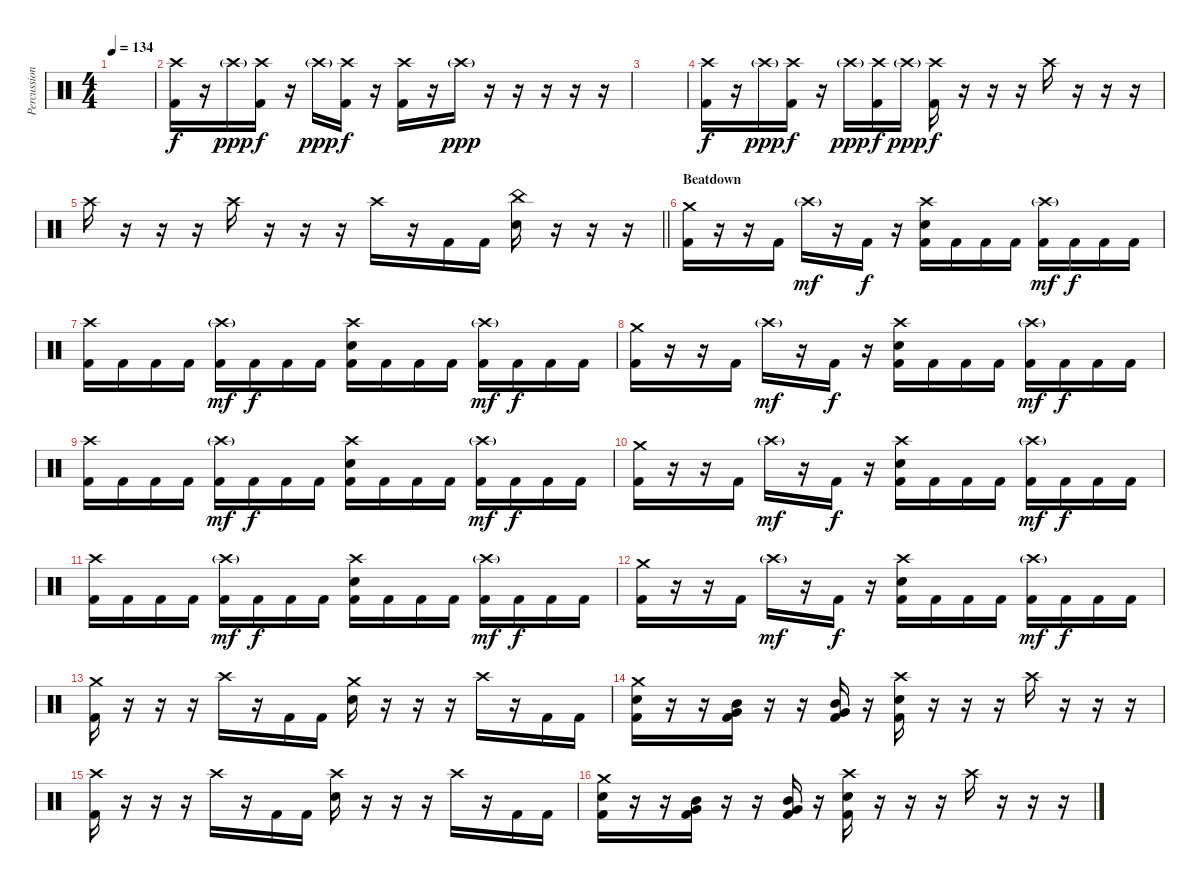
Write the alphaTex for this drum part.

\track ("Percussion" "Percussion") {instrument percussion}
\staff {score}
\articulation defaults
\ts (4 4)
\tempo 134
\clef neutral
\ks c
|
("Crash high (hit)" "Kick (hit) 2").16{dy f} r.16 "Crash high (hit)"{g}.16{dy ppp} ("Crash high (hit)" "Kick (hit) 2").16{dy f} r.16 "Crash high (hit)"{g}.16{dy ppp} ("Crash high (hit)" "Kick (hit) 2").16{dy f} r.16 ("Crash high (hit)" "Kick (hit) 2").16 r.16 "Crash high (hit)"{g}.16{dy ppp} r.16 r.16 r.16 r.16 r.16 |
|
("Crash high (hit)" "Kick (hit) 2").16{dy f} r.16 "Crash high (hit)"{g}.16{dy ppp} ("Crash high (hit)" "Kick (hit) 2").16{dy f} r.16 "Crash high (hit)"{g}.16{dy ppp} ("Crash high (hit)" "Kick (hit) 2").16{dy f} "Crash high (hit)"{g}.16{dy ppp} ("Crash high (hit)" "Kick (hit) 2").16{dy f} r.16 r.16 r.16 "Crash high (hit)".16 r.16 r.16 r.16 |
\barLineRight lightlight "Crash high (hit)".16
r.16 r.16 r.16 "Crash high (hit)".16 r.16 r.16 r.16 "Crash high (hit)".16 r.16 "Kick (hit) 2".16 "Kick (hit) 2".16 ("China (hit)" "Snare (hit) 2").16 r.16 r.16 r.16 |
\section ("" "Beatdown")
("Crash medium (hit)" "Kick (hit) 2").16 r.16 r.16 "Kick (hit) 2".16 "Crash high (hit)"{g}.16{dy mf} r.16 "Kick (hit) 2".16{dy f} r.16 ("Crash high (hit)" "Snare (hit) 2" "Kick (hit) 2").16 "Kick (hit) 2".16 "Kick (hit) 2".16 "Kick (hit) 2".16 ("Crash high (hit)"{g} "Kick (hit) 2").16{dy mf} "Kick (hit) 2".16{dy f} "Kick (hit) 2".16 "Kick (hit) 2".16 |
("Crash high (hit)" "Kick (hit) 2").16 "Kick (hit) 2".16 "Kick (hit) 2".16 "Kick (hit) 2".16 ("Crash high (hit)"{g} "Kick (hit) 2").16{dy mf} "Kick (hit) 2".16{dy f} "Kick (hit) 2".16 "Kick (hit) 2".16 ("Crash high (hit)" "Snare (hit) 2" "Kick (hit) 2").16 "Kick (hit) 2".16 "Kick (hit) 2".16 "Kick (hit) 2".16 ("Crash high (hit)"{g} "Kick (hit) 2").16{dy mf} "Kick (hit) 2".16{dy f} "Kick (hit) 2".16 "Kick (hit) 2".16 |
("Crash medium (hit)" "Kick (hit) 2").16 r.16 r.16 "Kick (hit) 2".16 "Crash high (hit)"{g}.16{dy mf} r.16 "Kick (hit) 2".16{dy f} r.16 ("Crash high (hit)" "Snare (hit) 2" "Kick (hit) 2").16 "Kick (hit) 2".16 "Kick (hit) 2".16 "Kick (hit) 2".16 ("Crash high (hit)"{g} "Kick (hit) 2").16{dy mf} "Kick (hit) 2".16{dy f} "Kick (hit) 2".16 "Kick (hit) 2".16 |
("Crash high (hit)" "Kick (hit) 2").16 "Kick (hit) 2".16 "Kick (hit) 2".16 "Kick (hit) 2".16 ("Crash high (hit)"{g} "Kick (hit) 2").16{dy mf} "Kick (hit) 2".16{dy f} "Kick (hit) 2".16 "Kick (hit) 2".16 ("Crash high (hit)" "Snare (hit) 2" "Kick (hit) 2").16 "Kick (hit) 2".16 "Kick (hit) 2".16 "Kick (hit) 2".16 ("Crash high (hit)"{g} "Kick (hit) 2").16{dy mf} "Kick (hit) 2".16{dy f} "Kick (hit) 2".16 "Kick (hit) 2".16 |
("Crash medium (hit)" "Kick (hit) 2").16 r.16 r.16 "Kick (hit) 2".16 "Crash high (hit)"{g}.16{dy mf} r.16 "Kick (hit) 2".16{dy f} r.16 ("Crash high (hit)" "Snare (hit) 2" "Kick (hit) 2").16 "Kick (hit) 2".16 "Kick (hit) 2".16 "Kick (hit) 2".16 ("Crash high (hit)"{g} "Kick (hit) 2").16{dy mf} "Kick (hit) 2".16{dy f} "Kick (hit) 2".16 "Kick (hit) 2".16 |
("Crash high (hit)" "Kick (hit) 2").16 "Kick (hit) 2".16 "Kick (hit) 2".16 "Kick (hit) 2".16 ("Crash high (hit)"{g} "Kick (hit) 2").16{dy mf} "Kick (hit) 2".16{dy f} "Kick (hit) 2".16 "Kick (hit) 2".16 ("Crash high (hit)" "Snare (hit) 2" "Kick (hit) 2").16 "Kick (hit) 2".16 "Kick (hit) 2".16 "Kick (hit) 2".16 ("Crash high (hit)"{g} "Kick (hit) 2").16{dy mf} "Kick (hit) 2".16{dy f} "Kick (hit) 2".16 "Kick (hit) 2".16 |
("Crash medium (hit)" "Kick (hit) 2").16 r.16 r.16 "Kick (hit) 2".16 "Crash high (hit)"{g}.16{dy mf} r.16 "Kick (hit) 2".16{dy f} r.16 ("Crash high (hit)" "Snare (hit) 2" "Kick (hit) 2").16 "Kick (hit) 2".16 "Kick (hit) 2".16 "Kick (hit) 2".16 ("Crash high (hit)"{g} "Kick (hit) 2").16{dy mf} "Kick (hit) 2".16{dy f} "Kick (hit) 2".16 "Kick (hit) 2".16 |
("Crash medium (hit)" "Kick (hit) 2").16 r.16 r.16 r.16 "Crash high (hit)".16 r.16 "Kick (hit) 2".16 "Kick (hit) 2".16 ("Crash medium (hit)" "Snare (hit) 2").16 r.16 r.16 r.16 "Crash high (hit)".16 r.16 "Kick (hit) 2".16 "Kick (hit) 2".16 |
("Crash medium (hit)" "Snare (hit) 2" "Kick (hit) 2").16 r.16 r.16 ("Mid Tom (hit)" "Very Low Tom (hit)" "Kick (hit) 2").16 r.16 r.16 ("Mid Tom (hit)" "Very Low Tom (hit)" "Kick (hit) 2").16 r.16 ("Crash high (hit)" "Snare (hit) 2" "Kick (hit) 2").16 r.16 r.16 r.16 "Crash high (hit)".16 r.16 r.16 r.16 |
("Crash high (hit)" "Kick (hit) 2").16 r.16 r.16 r.16 "Crash high (hit)".16 r.16 "Kick (hit) 2".16 "Kick (hit) 2".16 ("Crash high (hit)" "Snare (hit) 2").16 r.16 r.16 r.16 "Crash high (hit)".16 r.16 "Kick (hit) 2".16 "Kick (hit) 2".16 |
("Crash medium (hit)" "Snare (hit) 2" "Kick (hit) 2").16 r.16 r.16 ("Mid Tom (hit)" "Very Low Tom (hit)" "Kick (hit) 2").16 r.16 r.16 ("Mid Tom (hit)" "Very Low Tom (hit)" "Kick (hit) 2").16 r.16 ("Crash high (hit)" "Snare (hit) 2" "Kick (hit) 2").16 r.16 r.16 r.16 "Crash high (hit)".16 r.16 r.16 r.16
